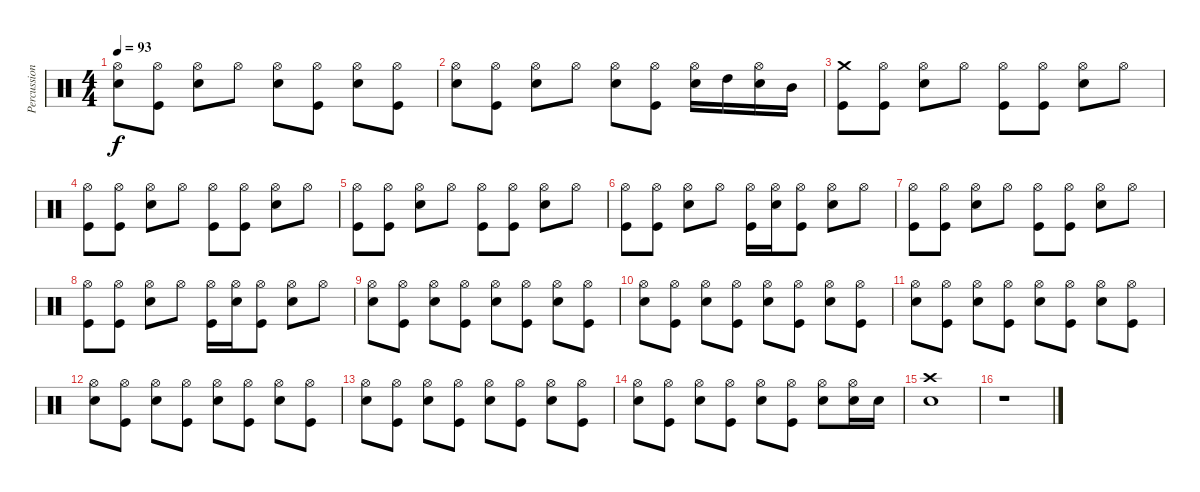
\track ("Percussions" "Percussion") {instrument percussion}
\staff {score}
\articulation defaults
\ts (4 4)
\tempo 93
\clef neutral
\ks c
("Hi-Hat (open)" "Snare (hit) 2").8{dy f} ("Hi-Hat (open)" "Kick (hit)").8 ("Hi-Hat (open)" "Snare (hit) 2").8 "Hi-Hat (open)".8 ("Hi-Hat (open)" "Snare (hit) 2").8 ("Hi-Hat (open)" "Kick (hit)").8 ("Hi-Hat (open)" "Snare (hit) 2").8 ("Hi-Hat (open)" "Kick (hit)").8 |
("Hi-Hat (open)" "Snare (hit) 2").8 ("Hi-Hat (open)" "Kick (hit)").8 ("Hi-Hat (open)" "Snare (hit) 2").8 "Hi-Hat (open)".8 ("Hi-Hat (open)" "Snare (hit) 2").8 ("Hi-Hat (open)" "Kick (hit)").8 ("Hi-Hat (open)" "Snare (hit) 2").16 "High Tom (hit)".16 ("Hi-Hat (open)" "Snare (hit) 2").16 "Mid Tom (hit)".16 |
("Crash medium (hit)" "Kick (hit)").8 ("Hi-Hat (open)" "Kick (hit)").8 ("Hi-Hat (open)" "Snare (hit) 2").8 "Hi-Hat (open)".8 ("Hi-Hat (open)" "Kick (hit)").8 ("Hi-Hat (open)" "Kick (hit)").8 ("Hi-Hat (open)" "Snare (hit) 2").8 "Hi-Hat (open)".8 |
("Hi-Hat (open)" "Kick (hit)").8 ("Hi-Hat (open)" "Kick (hit)").8 ("Hi-Hat (open)" "Snare (hit) 2").8 "Hi-Hat (open)".8 ("Hi-Hat (open)" "Kick (hit)").8 ("Hi-Hat (open)" "Kick (hit)").8 ("Hi-Hat (open)" "Snare (hit) 2").8 "Hi-Hat (open)".8 |
("Hi-Hat (open)" "Kick (hit)").8 ("Hi-Hat (open)" "Kick (hit)").8 ("Hi-Hat (open)" "Snare (hit) 2").8 "Hi-Hat (open)".8 ("Hi-Hat (open)" "Kick (hit)").8 ("Hi-Hat (open)" "Kick (hit)").8 ("Hi-Hat (open)" "Snare (hit) 2").8 "Hi-Hat (open)".8 |
("Hi-Hat (open)" "Kick (hit)").8 ("Hi-Hat (open)" "Kick (hit)").8 ("Hi-Hat (open)" "Snare (hit) 2").8 "Hi-Hat (open)".8 ("Hi-Hat (open)" "Kick (hit)").16 ("Hi-Hat (open)" "Snare (hit) 2").16 ("Hi-Hat (open)" "Kick (hit)").8 ("Hi-Hat (open)" "Snare (hit) 2").8 "Hi-Hat (open)".8 |
("Hi-Hat (open)" "Kick (hit)").8 ("Hi-Hat (open)" "Kick (hit)").8 ("Hi-Hat (open)" "Snare (hit) 2").8 "Hi-Hat (open)".8 ("Hi-Hat (open)" "Kick (hit)").8 ("Hi-Hat (open)" "Kick (hit)").8 ("Hi-Hat (open)" "Snare (hit) 2").8 "Hi-Hat (open)".8 |
("Hi-Hat (open)" "Kick (hit)").8 ("Hi-Hat (open)" "Kick (hit)").8 ("Hi-Hat (open)" "Snare (hit) 2").8 "Hi-Hat (open)".8 ("Hi-Hat (open)" "Kick (hit)").16 ("Hi-Hat (open)" "Snare (hit) 2").16 ("Hi-Hat (open)" "Kick (hit)").8 ("Hi-Hat (open)" "Snare (hit) 2").8 "Hi-Hat (open)".8 |
("Hi-Hat (open)" "Snare (hit) 2").8 ("Hi-Hat (open)" "Kick (hit)").8 ("Hi-Hat (open)" "Snare (hit) 2").8 ("Hi-Hat (open)" "Kick (hit)").8 ("Hi-Hat (open)" "Snare (hit) 2").8 ("Hi-Hat (open)" "Kick (hit)").8 ("Hi-Hat (open)" "Snare (hit) 2").8 ("Hi-Hat (open)" "Kick (hit)").8 |
("Hi-Hat (open)" "Snare (hit) 2").8 ("Hi-Hat (open)" "Kick (hit)").8 ("Hi-Hat (open)" "Snare (hit) 2").8 ("Hi-Hat (open)" "Kick (hit)").8 ("Hi-Hat (open)" "Snare (hit) 2").8 ("Hi-Hat (open)" "Kick (hit)").8 ("Hi-Hat (open)" "Snare (hit) 2").8 ("Hi-Hat (open)" "Kick (hit)").8 |
("Hi-Hat (open)" "Snare (hit) 2").8 ("Hi-Hat (open)" "Kick (hit)").8 ("Hi-Hat (open)" "Snare (hit) 2").8 ("Hi-Hat (open)" "Kick (hit)").8 ("Hi-Hat (open)" "Snare (hit) 2").8 ("Hi-Hat (open)" "Kick (hit)").8 ("Hi-Hat (open)" "Snare (hit) 2").8 ("Hi-Hat (open)" "Kick (hit)").8 |
("Hi-Hat (open)" "Snare (hit) 2").8 ("Hi-Hat (open)" "Kick (hit)").8 ("Hi-Hat (open)" "Snare (hit) 2").8 ("Hi-Hat (open)" "Kick (hit)").8 ("Hi-Hat (open)" "Snare (hit) 2").8 ("Hi-Hat (open)" "Kick (hit)").8 ("Hi-Hat (open)" "Snare (hit) 2").8 ("Hi-Hat (open)" "Kick (hit)").8 |
("Hi-Hat (open)" "Snare (hit) 2").8 ("Hi-Hat (open)" "Kick (hit)").8 ("Hi-Hat (open)" "Snare (hit) 2").8 ("Hi-Hat (open)" "Kick (hit)").8 ("Hi-Hat (open)" "Snare (hit) 2").8 ("Hi-Hat (open)" "Kick (hit)").8 ("Hi-Hat (open)" "Snare (hit) 2").8 ("Hi-Hat (open)" "Kick (hit)").8 |
("Hi-Hat (open)" "Snare (hit) 2").8 ("Hi-Hat (open)" "Kick (hit)").8 ("Hi-Hat (open)" "Snare (hit) 2").8 ("Hi-Hat (open)" "Kick (hit)").8 ("Hi-Hat (open)" "Snare (hit) 2").8 ("Hi-Hat (open)" "Kick (hit)").8 ("Hi-Hat (open)" "Snare (hit) 2").8 ("Hi-Hat (open)" "Snare (hit) 2").16 "Snare (hit) 2".16 |
("Crash high (hit)" "Snare (hit) 2").1 |
r.1
